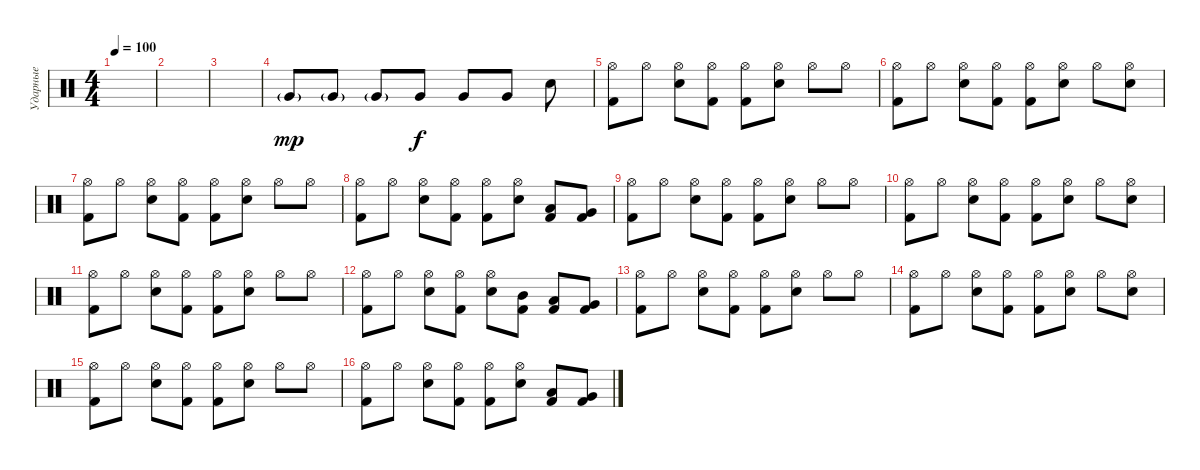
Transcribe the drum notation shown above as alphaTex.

\track ("Ударные" "Ударные") {instrument percussion}
\staff {score}
\articulation defaults
\ts (4 4)
\tempo 100
\clef neutral
\ks c
|
|
|
"Very Low Tom (hit)"{g}.8{dy mp} "Very Low Tom (hit)"{g}.8 "Very Low Tom (hit)"{g}.8 "Very Low Tom (hit)".8{dy f} "Very Low Tom (hit)".8 "Very Low Tom (hit)".8 "Electric Snare (hit)".8 |
("Kick (hit) 2" "Hi-Hat (open)").8 "Hi-Hat (open)".8 ("Electric Snare (hit)" "Hi-Hat (open)").8 ("Kick (hit) 2" "Hi-Hat (open)").8 ("Kick (hit) 2" "Hi-Hat (open)").8 ("Electric Snare (hit)" "Hi-Hat (open)").8 "Hi-Hat (open)".8 "Hi-Hat (open)".8 |
("Kick (hit) 2" "Hi-Hat (open)").8 "Hi-Hat (open)".8 ("Electric Snare (hit)" "Hi-Hat (open)").8 ("Kick (hit) 2" "Hi-Hat (open)").8 ("Kick (hit) 2" "Hi-Hat (open)").8 ("Electric Snare (hit)" "Hi-Hat (open)").8 "Hi-Hat (open)".8 ("Electric Snare (hit)" "Hi-Hat (open)").8 |
("Kick (hit) 2" "Hi-Hat (open)").8 "Hi-Hat (open)".8 ("Electric Snare (hit)" "Hi-Hat (open)").8 ("Kick (hit) 2" "Hi-Hat (open)").8 ("Kick (hit) 2" "Hi-Hat (open)").8 ("Electric Snare (hit)" "Hi-Hat (open)").8 "Hi-Hat (open)".8 "Hi-Hat (open)".8 |
("Kick (hit) 2" "Hi-Hat (open)").8 "Hi-Hat (open)".8 ("Electric Snare (hit)" "Hi-Hat (open)").8 ("Kick (hit) 2" "Hi-Hat (open)").8 ("Kick (hit) 2" "Hi-Hat (open)").8 ("Electric Snare (hit)" "Hi-Hat (open)").8 ("Low Tom (hit)" "Kick (hit) 2").8 ("Very Low Tom (hit)" "Kick (hit) 2").8 |
("Kick (hit) 2" "Hi-Hat (open)").8 "Hi-Hat (open)".8 ("Electric Snare (hit)" "Hi-Hat (open)").8 ("Kick (hit) 2" "Hi-Hat (open)").8 ("Kick (hit) 2" "Hi-Hat (open)").8 ("Electric Snare (hit)" "Hi-Hat (open)").8 "Hi-Hat (open)".8 "Hi-Hat (open)".8 |
("Kick (hit) 2" "Hi-Hat (open)").8 "Hi-Hat (open)".8 ("Electric Snare (hit)" "Hi-Hat (open)").8 ("Kick (hit) 2" "Hi-Hat (open)").8 ("Kick (hit) 2" "Hi-Hat (open)").8 ("Electric Snare (hit)" "Hi-Hat (open)").8 "Hi-Hat (open)".8 ("Electric Snare (hit)" "Hi-Hat (open)").8 |
("Kick (hit) 2" "Hi-Hat (open)").8 "Hi-Hat (open)".8 ("Electric Snare (hit)" "Hi-Hat (open)").8 ("Kick (hit) 2" "Hi-Hat (open)").8 ("Kick (hit) 2" "Hi-Hat (open)").8 ("Electric Snare (hit)" "Hi-Hat (open)").8 "Hi-Hat (open)".8 "Hi-Hat (open)".8 |
("Kick (hit) 2" "Hi-Hat (open)").8 "Hi-Hat (open)".8 ("Electric Snare (hit)" "Hi-Hat (open)").8 ("Kick (hit) 2" "Hi-Hat (open)").8 ("Electric Snare (hit)" "Hi-Hat (open)").8 ("Mid Tom (hit)" "Kick (hit) 2").8 ("Low Tom (hit)" "Kick (hit) 2").8 ("Very Low Tom (hit)" "Kick (hit) 2").8 |
("Kick (hit) 2" "Hi-Hat (open)").8 "Hi-Hat (open)".8 ("Electric Snare (hit)" "Hi-Hat (open)").8 ("Kick (hit) 2" "Hi-Hat (open)").8 ("Kick (hit) 2" "Hi-Hat (open)").8 ("Electric Snare (hit)" "Hi-Hat (open)").8 "Hi-Hat (open)".8 "Hi-Hat (open)".8 |
("Kick (hit) 2" "Hi-Hat (open)").8 "Hi-Hat (open)".8 ("Electric Snare (hit)" "Hi-Hat (open)").8 ("Kick (hit) 2" "Hi-Hat (open)").8 ("Kick (hit) 2" "Hi-Hat (open)").8 ("Electric Snare (hit)" "Hi-Hat (open)").8 "Hi-Hat (open)".8 ("Electric Snare (hit)" "Hi-Hat (open)").8 |
("Kick (hit) 2" "Hi-Hat (open)").8 "Hi-Hat (open)".8 ("Electric Snare (hit)" "Hi-Hat (open)").8 ("Kick (hit) 2" "Hi-Hat (open)").8 ("Kick (hit) 2" "Hi-Hat (open)").8 ("Electric Snare (hit)" "Hi-Hat (open)").8 "Hi-Hat (open)".8 "Hi-Hat (open)".8 |
("Kick (hit) 2" "Hi-Hat (open)").8 "Hi-Hat (open)".8 ("Electric Snare (hit)" "Hi-Hat (open)").8 ("Kick (hit) 2" "Hi-Hat (open)").8 ("Kick (hit) 2" "Hi-Hat (open)").8 ("Electric Snare (hit)" "Hi-Hat (open)").8 ("Low Tom (hit)" "Kick (hit) 2").8 ("Very Low Tom (hit)" "Kick (hit) 2").8
